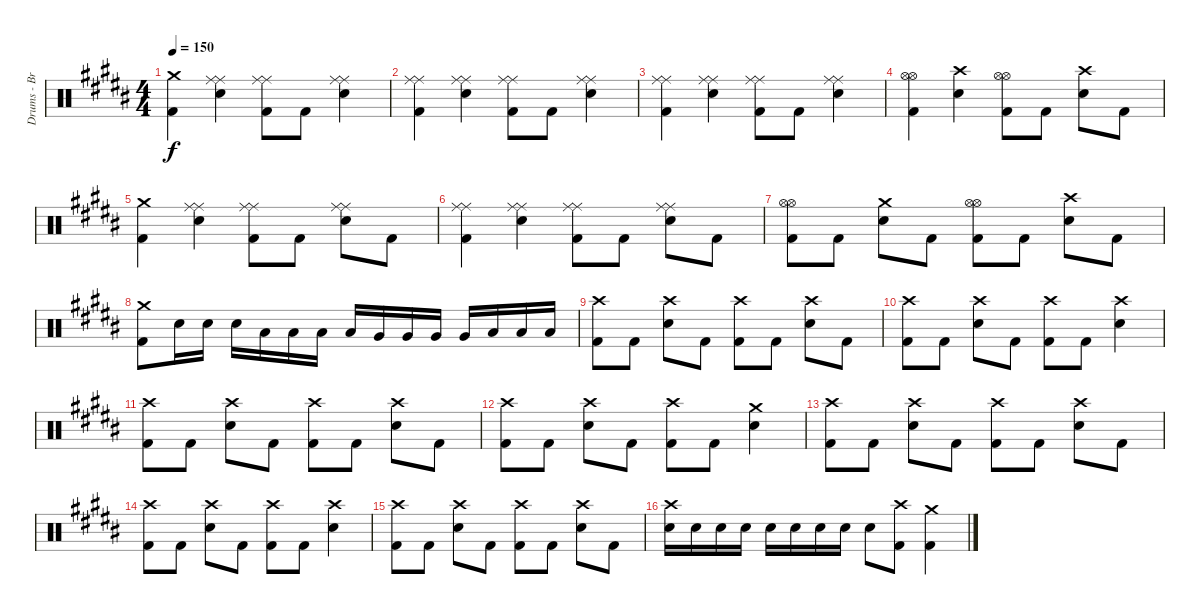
\track ("Drums - Brandon" "Drums - Br") {instrument percussion}
\staff {score}
\articulation defaults
\ts (4 4)
\tempo 150
\clef neutral
\ks b
("Crash medium (hit)" "Kick (hit) 2").4{dy f} ("Ride (middle)" "Ride (middle)" "Snare (hit) 2").4 ("Ride (middle)" "Ride (middle)" "Kick (hit) 2").8 "Kick (hit) 2".8 ("Ride (middle)" "Ride (middle)" "Snare (hit) 2").4 |
("Ride (middle)" "Ride (middle)" "Kick (hit) 2").4 ("Ride (middle)" "Ride (middle)" "Snare (hit) 2").4 ("Ride (middle)" "Ride (middle)" "Kick (hit) 2").8 "Kick (hit) 2".8 ("Ride (middle)" "Ride (middle)" "Snare (hit) 2").4 |
("Ride (middle)" "Ride (middle)" "Kick (hit) 2").4 ("Ride (middle)" "Ride (middle)" "Snare (hit) 2").4 ("Ride (middle)" "Ride (middle)" "Kick (hit) 2").8 "Kick (hit) 2".8 ("Ride (middle)" "Ride (middle)" "Snare (hit) 2").4 |
("Hi-Hat (open)" "Hi-Hat (open)" "Kick (hit) 2").4 ("Crash high (hit)" "Snare (hit) 2").4 ("Hi-Hat (open)" "Hi-Hat (open)" "Kick (hit) 2").8 "Kick (hit) 2".8 ("Crash high (hit)" "Snare (hit) 2").8 "Kick (hit) 2".8 |
("Crash medium (hit)" "Kick (hit) 2").4 ("Ride (middle)" "Ride (middle)" "Snare (hit) 2").4 ("Ride (middle)" "Ride (middle)" "Kick (hit) 2").8 "Kick (hit) 2".8 ("Ride (middle)" "Ride (middle)" "Snare (hit) 2").8 "Kick (hit) 2".8 |
("Ride (middle)" "Ride (middle)" "Kick (hit) 2").4 ("Ride (middle)" "Ride (middle)" "Snare (hit) 2").4 ("Ride (middle)" "Ride (middle)" "Kick (hit) 2").8 "Kick (hit) 2".8 ("Ride (middle)" "Ride (middle)" "Snare (hit) 2").8 "Kick (hit) 2".8 |
("Hi-Hat (open)" "Hi-Hat (open)" "Kick (hit) 2").8 "Kick (hit) 2".8 ("Crash medium (hit)" "Snare (hit) 2").8 "Kick (hit) 2".8 ("Hi-Hat (open)" "Hi-Hat (open)" "Kick (hit) 2").8 "Kick (hit) 2".8 ("Crash high (hit)" "Snare (hit) 2").8 "Kick (hit) 2".8 |
("Crash medium (hit)" "Kick (hit) 2").8 "Electric Snare (hit)".16 "Electric Snare (hit)".16 "Electric Snare (hit)".16 "Low Tom (hit)".16 "Low Tom (hit)".16 "Low Tom (hit)".16 "Low Tom (hit)".16 "Very Low Tom (hit)".16 "Very Low Tom (hit)".16 "Very Low Tom (hit)".16 "Very Low Tom (hit)".16 "Low Floor Tom (hit)".16 "Low Floor Tom (hit)".16 "Low Floor Tom (hit)".16 |
("Crash high (hit)" "Kick (hit) 2").8 "Kick (hit) 2".8 ("Crash high (hit)" "Snare (hit) 2").8 "Kick (hit) 2".8 ("Crash high (hit)" "Kick (hit) 2").8 "Kick (hit) 2".8 ("Crash high (hit)" "Snare (hit) 2").8 "Kick (hit) 2".8 |
("Crash high (hit)" "Kick (hit) 2").8 "Kick (hit) 2".8 ("Crash high (hit)" "Snare (hit) 2").8 "Kick (hit) 2".8 ("Crash high (hit)" "Kick (hit) 2").8 "Kick (hit) 2".8 ("Crash high (hit)" "Snare (hit) 2").4 |
("Crash high (hit)" "Kick (hit) 2").8 "Kick (hit) 2".8 ("Crash high (hit)" "Snare (hit) 2").8 "Kick (hit) 2".8 ("Crash high (hit)" "Kick (hit) 2").8 "Kick (hit) 2".8 ("Crash high (hit)" "Snare (hit) 2").8 "Kick (hit) 2".8 |
("Crash high (hit)" "Kick (hit) 2").8 "Kick (hit) 2".8 ("Crash high (hit)" "Snare (hit) 2").8 "Kick (hit) 2".8 ("Crash high (hit)" "Kick (hit) 2").8 "Kick (hit) 2".8 ("Crash medium (hit)" "Snare (hit) 2").4 |
("Crash high (hit)" "Kick (hit) 2").8 "Kick (hit) 2".8 ("Crash high (hit)" "Snare (hit) 2").8 "Kick (hit) 2".8 ("Crash high (hit)" "Kick (hit) 2").8 "Kick (hit) 2".8 ("Crash high (hit)" "Snare (hit) 2").8 "Kick (hit) 2".8 |
("Crash high (hit)" "Kick (hit) 2").8 "Kick (hit) 2".8 ("Crash high (hit)" "Snare (hit) 2").8 "Kick (hit) 2".8 ("Crash high (hit)" "Kick (hit) 2").8 "Kick (hit) 2".8 ("Crash high (hit)" "Snare (hit) 2").4 |
("Crash high (hit)" "Kick (hit) 2").8 "Kick (hit) 2".8 ("Crash high (hit)" "Snare (hit) 2").8 "Kick (hit) 2".8 ("Crash high (hit)" "Kick (hit) 2").8 "Kick (hit) 2".8 ("Crash high (hit)" "Snare (hit) 2").8 "Kick (hit) 2".8 |
("Crash high (hit)" "Snare (hit) 2").16 "Snare (hit) 2".16 "Snare (hit) 2".16 "Snare (hit) 2".16 "Snare (hit) 2".16 "Snare (hit) 2".16 "Snare (hit) 2".16 "Snare (hit) 2".16 "Snare (hit) 2".8 ("Crash high (hit)" "Kick (hit) 2").8 ("Crash medium (hit)" "Kick (hit) 2").4
